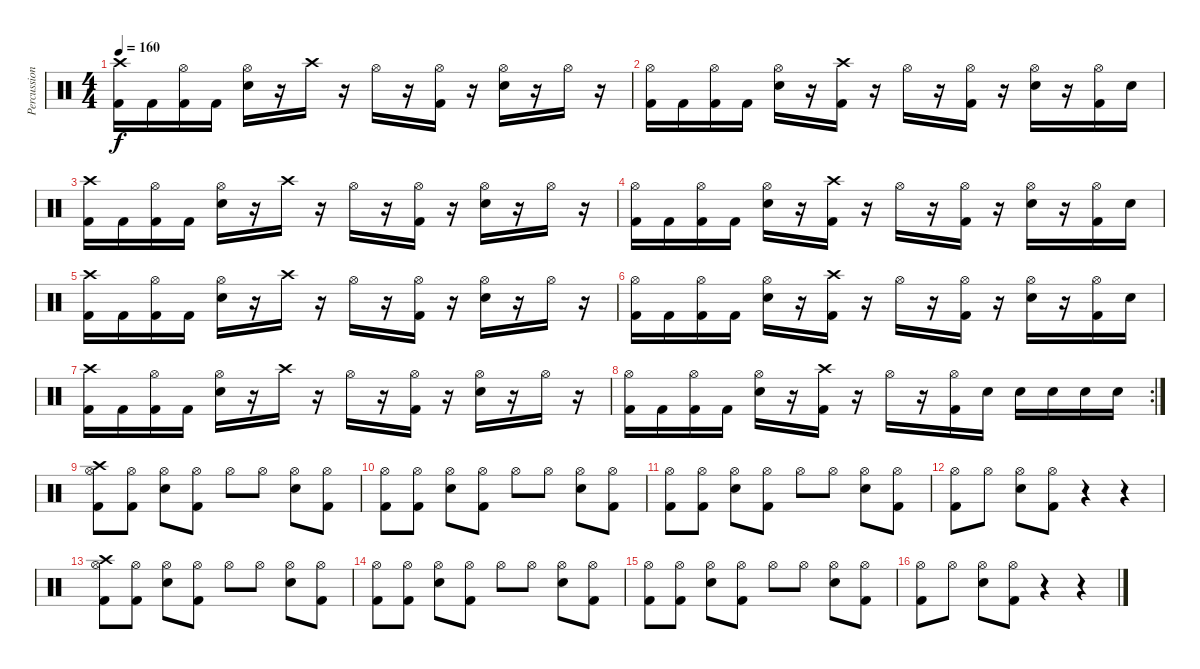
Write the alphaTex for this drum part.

\track ("Percussion" "Percussion") {instrument percussion}
\staff {score}
\articulation defaults
\ts (4 4)
\tempo 160
\clef neutral
\ks c
("Crash high (hit)" "Kick (hit) 2").16{dy f} "Kick (hit) 2".16 ("Hi-Hat (open)" "Kick (hit) 2").16 "Kick (hit) 2".16 ("Hi-Hat (open)" "Electric Snare (hit)").16 r.16 "Crash high (hit)".16 r.16 "Hi-Hat (open)".16 r.16 ("Hi-Hat (open)" "Kick (hit) 2").16 r.16 ("Hi-Hat (open)" "Electric Snare (hit)").16 r.16 "Hi-Hat (open)".16 r.16 |
("Hi-Hat (open)" "Kick (hit) 2").16 "Kick (hit) 2".16 ("Hi-Hat (open)" "Kick (hit) 2").16 "Kick (hit) 2".16 ("Hi-Hat (open)" "Electric Snare (hit)").16 r.16 ("Crash high (hit)" "Kick (hit) 2").16 r.16 "Hi-Hat (open)".16 r.16 ("Hi-Hat (open)" "Kick (hit) 2").16 r.16 ("Hi-Hat (open)" "Electric Snare (hit)").16 r.16 ("Hi-Hat (open)" "Kick (hit) 2").16 "Electric Snare (hit)".16 |
("Crash high (hit)" "Kick (hit) 2").16 "Kick (hit) 2".16 ("Hi-Hat (open)" "Kick (hit) 2").16 "Kick (hit) 2".16 ("Hi-Hat (open)" "Electric Snare (hit)").16 r.16 "Crash high (hit)".16 r.16 "Hi-Hat (open)".16 r.16 ("Hi-Hat (open)" "Kick (hit) 2").16 r.16 ("Hi-Hat (open)" "Electric Snare (hit)").16 r.16 "Hi-Hat (open)".16 r.16 |
("Hi-Hat (open)" "Kick (hit) 2").16 "Kick (hit) 2".16 ("Hi-Hat (open)" "Kick (hit) 2").16 "Kick (hit) 2".16 ("Hi-Hat (open)" "Electric Snare (hit)").16 r.16 ("Crash high (hit)" "Kick (hit) 2").16 r.16 "Hi-Hat (open)".16 r.16 ("Hi-Hat (open)" "Kick (hit) 2").16 r.16 ("Hi-Hat (open)" "Electric Snare (hit)").16 r.16 ("Hi-Hat (open)" "Kick (hit) 2").16 "Electric Snare (hit)".16 |
("Crash high (hit)" "Kick (hit) 2").16 "Kick (hit) 2".16 ("Hi-Hat (open)" "Kick (hit) 2").16 "Kick (hit) 2".16 ("Hi-Hat (open)" "Electric Snare (hit)").16 r.16 "Crash high (hit)".16 r.16 "Hi-Hat (open)".16 r.16 ("Hi-Hat (open)" "Kick (hit) 2").16 r.16 ("Hi-Hat (open)" "Electric Snare (hit)").16 r.16 "Hi-Hat (open)".16 r.16 |
("Hi-Hat (open)" "Kick (hit) 2").16 "Kick (hit) 2".16 ("Hi-Hat (open)" "Kick (hit) 2").16 "Kick (hit) 2".16 ("Hi-Hat (open)" "Electric Snare (hit)").16 r.16 ("Crash high (hit)" "Kick (hit) 2").16 r.16 "Hi-Hat (open)".16 r.16 ("Hi-Hat (open)" "Kick (hit) 2").16 r.16 ("Hi-Hat (open)" "Electric Snare (hit)").16 r.16 ("Hi-Hat (open)" "Kick (hit) 2").16 "Electric Snare (hit)".16 |
("Crash high (hit)" "Kick (hit) 2").16 "Kick (hit) 2".16 ("Hi-Hat (open)" "Kick (hit) 2").16 "Kick (hit) 2".16 ("Hi-Hat (open)" "Electric Snare (hit)").16 r.16 "Crash high (hit)".16 r.16 "Hi-Hat (open)".16 r.16 ("Hi-Hat (open)" "Kick (hit) 2").16 r.16 ("Hi-Hat (open)" "Electric Snare (hit)").16 r.16 "Hi-Hat (open)".16 r.16 |
\rc 2
("Hi-Hat (open)" "Kick (hit) 2").16 "Kick (hit) 2".16 ("Hi-Hat (open)" "Kick (hit) 2").16 "Kick (hit) 2".16 ("Hi-Hat (open)" "Electric Snare (hit)").16 r.16 ("Crash high (hit)" "Kick (hit) 2").16 r.16 "Hi-Hat (open)".16 r.16 ("Hi-Hat (open)" "Kick (hit) 2").16 "Electric Snare (hit)".16 "Electric Snare (hit)".16 "Electric Snare (hit)".16 "Electric Snare (hit)".16 "Electric Snare (hit)".16 |
("Crash high (hit)" "Hi-Hat (open)" "Kick (hit) 2").8 ("Hi-Hat (open)" "Kick (hit) 2").8 ("Hi-Hat (open)" "Electric Snare (hit)").8 ("Hi-Hat (open)" "Kick (hit) 2").8 "Hi-Hat (open)".8 "Hi-Hat (open)".8 ("Hi-Hat (open)" "Electric Snare (hit)").8 ("Hi-Hat (open)" "Kick (hit) 2").8 |
("Hi-Hat (open)" "Kick (hit) 2").8 ("Hi-Hat (open)" "Kick (hit) 2").8 ("Hi-Hat (open)" "Electric Snare (hit)").8 ("Hi-Hat (open)" "Kick (hit) 2").8 "Hi-Hat (open)".8 "Hi-Hat (open)".8 ("Hi-Hat (open)" "Electric Snare (hit)").8 ("Hi-Hat (open)" "Kick (hit) 2").8 |
("Hi-Hat (open)" "Kick (hit) 2").8 ("Hi-Hat (open)" "Kick (hit) 2").8 ("Hi-Hat (open)" "Electric Snare (hit)").8 ("Hi-Hat (open)" "Kick (hit) 2").8 "Hi-Hat (open)".8 "Hi-Hat (open)".8 ("Hi-Hat (open)" "Electric Snare (hit)").8 ("Hi-Hat (open)" "Kick (hit) 2").8 |
("Hi-Hat (open)" "Kick (hit) 2").8 "Hi-Hat (open)".8 ("Hi-Hat (open)" "Electric Snare (hit)").8 ("Hi-Hat (open)" "Kick (hit) 2").8 r.4 r.4 |
("Crash high (hit)" "Hi-Hat (open)" "Kick (hit) 2").8 ("Hi-Hat (open)" "Kick (hit) 2").8 ("Hi-Hat (open)" "Electric Snare (hit)").8 ("Hi-Hat (open)" "Kick (hit) 2").8 "Hi-Hat (open)".8 "Hi-Hat (open)".8 ("Hi-Hat (open)" "Electric Snare (hit)").8 ("Hi-Hat (open)" "Kick (hit) 2").8 |
("Hi-Hat (open)" "Kick (hit) 2").8 ("Hi-Hat (open)" "Kick (hit) 2").8 ("Hi-Hat (open)" "Electric Snare (hit)").8 ("Hi-Hat (open)" "Kick (hit) 2").8 "Hi-Hat (open)".8 "Hi-Hat (open)".8 ("Hi-Hat (open)" "Electric Snare (hit)").8 ("Hi-Hat (open)" "Kick (hit) 2").8 |
("Hi-Hat (open)" "Kick (hit) 2").8 ("Hi-Hat (open)" "Kick (hit) 2").8 ("Hi-Hat (open)" "Electric Snare (hit)").8 ("Hi-Hat (open)" "Kick (hit) 2").8 "Hi-Hat (open)".8 "Hi-Hat (open)".8 ("Hi-Hat (open)" "Electric Snare (hit)").8 ("Hi-Hat (open)" "Kick (hit) 2").8 |
("Hi-Hat (open)" "Kick (hit) 2").8 "Hi-Hat (open)".8 ("Hi-Hat (open)" "Electric Snare (hit)").8 ("Hi-Hat (open)" "Kick (hit) 2").8 r.4 r.4
